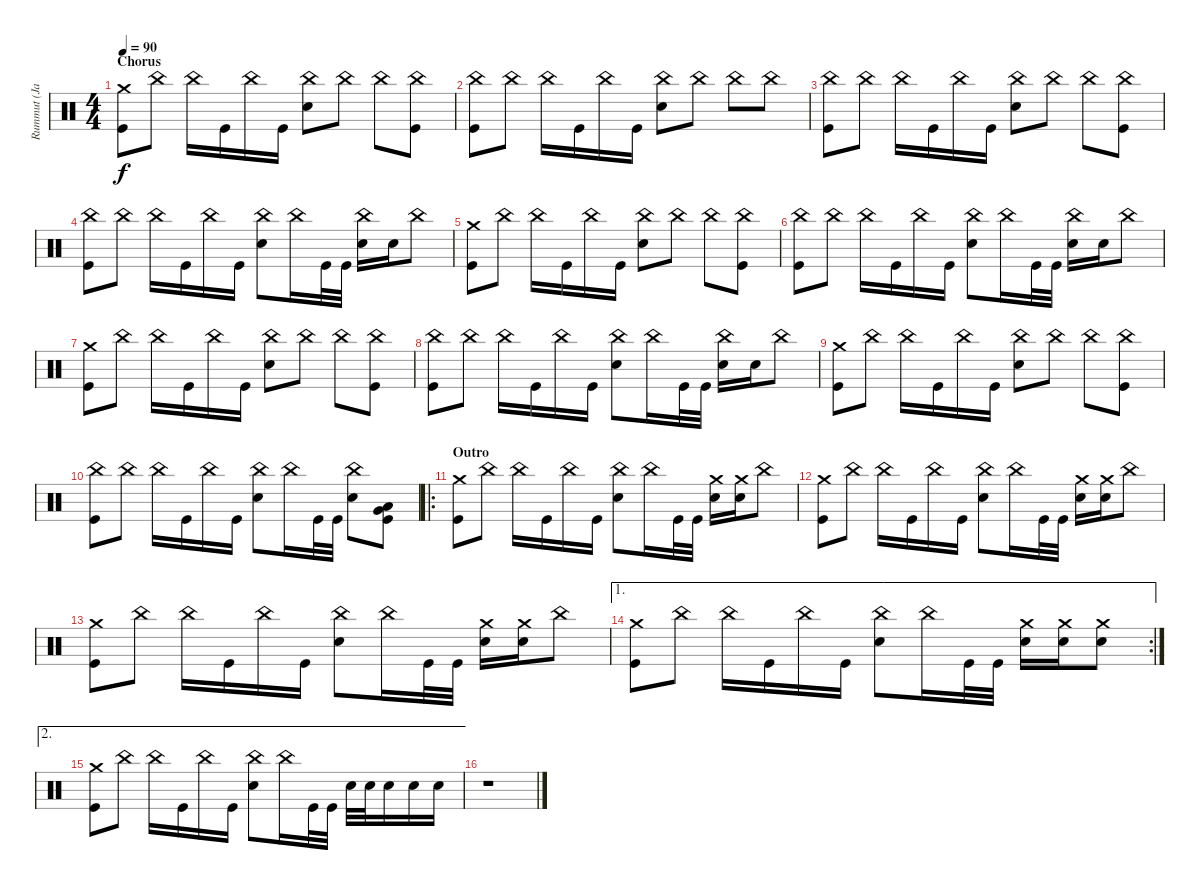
\track ("Rummut (Janne)" "Rummut (Ja") {instrument percussion}
\staff {score}
\articulation defaults
\ts (4 4)
\section ("" "Chorus")
\tempo 90
\clef neutral
\ks c
("Crash medium (hit)" "Kick (hit)").8{dy f} "China (hit)".8 "China (hit)".16 "Kick (hit)".16 "China (hit)".16 "Kick (hit)".16 ("China (hit)" "Snare (hit) 2").8 "China (hit)".8 "China (hit)".8 ("China (hit)" "Kick (hit)").8 |
("China (hit)" "Kick (hit)").8 "China (hit)".8 "China (hit)".16 "Kick (hit)".16 "China (hit)".16 "Kick (hit)".16 ("China (hit)" "Snare (hit) 2").8 "China (hit)".8 "China (hit)".8 "China (hit)".8 |
("China (hit)" "Kick (hit)").8 "China (hit)".8 "China (hit)".16 "Kick (hit)".16 "China (hit)".16 "Kick (hit)".16 ("China (hit)" "Snare (hit) 2").8 "China (hit)".8 "China (hit)".8 ("China (hit)" "Kick (hit)").8 |
("China (hit)" "Kick (hit)").8 "China (hit)".8 "China (hit)".16 "Kick (hit)".16 "China (hit)".16 "Kick (hit)".16 ("China (hit)" "Snare (hit) 2").8 "China (hit)".16 "Kick (hit)".32 "Kick (hit)".32 ("China (hit)" "Snare (hit) 2").16 "Snare (hit) 2".16 "China (hit)".8 |
("Crash medium (hit)" "Kick (hit)").8 "China (hit)".8 "China (hit)".16 "Kick (hit)".16 "China (hit)".16 "Kick (hit)".16 ("China (hit)" "Snare (hit) 2").8 "China (hit)".8 "China (hit)".8 ("China (hit)" "Kick (hit)").8 |
("China (hit)" "Kick (hit)").8 "China (hit)".8 "China (hit)".16 "Kick (hit)".16 "China (hit)".16 "Kick (hit)".16 ("China (hit)" "Snare (hit) 2").8 "China (hit)".16 "Kick (hit)".32 "Kick (hit)".32 ("China (hit)" "Snare (hit) 2").16 "Snare (hit) 2".16 "China (hit)".8 |
("Crash medium (hit)" "Kick (hit)").8 "China (hit)".8 "China (hit)".16 "Kick (hit)".16 "China (hit)".16 "Kick (hit)".16 ("China (hit)" "Snare (hit) 2").8 "China (hit)".8 "China (hit)".8 ("China (hit)" "Kick (hit)").8 |
("China (hit)" "Kick (hit)").8 "China (hit)".8 "China (hit)".16 "Kick (hit)".16 "China (hit)".16 "Kick (hit)".16 ("China (hit)" "Snare (hit) 2").8 "China (hit)".16 "Kick (hit)".32 "Kick (hit)".32 ("China (hit)" "Snare (hit) 2").16 "Snare (hit) 2".16 "China (hit)".8 |
("Crash medium (hit)" "Kick (hit)").8 "China (hit)".8 "China (hit)".16 "Kick (hit)".16 "China (hit)".16 "Kick (hit)".16 ("China (hit)" "Snare (hit) 2").8 "China (hit)".8 "China (hit)".8 ("China (hit)" "Kick (hit)").8 |
("China (hit)" "Kick (hit)").8 "China (hit)".8 "China (hit)".16 "Kick (hit)".16 "China (hit)".16 "Kick (hit)".16 ("China (hit)" "Snare (hit) 2").8 "China (hit)".16 "Kick (hit)".32 "Kick (hit)".32 ("China (hit)" "Snare (hit) 2").8 ("Low Tom (hit)" "Very Low Tom (hit)" "Kick (hit)").8 |
\ro
\section ("" "Outro")
("Crash medium (hit)" "Kick (hit)").8 "China (hit)".8 "China (hit)".16 "Kick (hit)".16 "China (hit)".16 "Kick (hit)".16 ("China (hit)" "Snare (hit) 2").8 "China (hit)".16 "Kick (hit)".32 "Kick (hit)".32 ("Crash medium (hit)" "Snare (hit) 2").16 ("Crash medium (hit)" "Snare (hit) 2").16 "China (hit)".8 |
("Crash medium (hit)" "Kick (hit)").8 "China (hit)".8 "China (hit)".16 "Kick (hit)".16 "China (hit)".16 "Kick (hit)".16 ("China (hit)" "Snare (hit) 2").8 "China (hit)".16 "Kick (hit)".32 "Kick (hit)".32 ("Crash medium (hit)" "Snare (hit) 2").16 ("Crash medium (hit)" "Snare (hit) 2").16 "China (hit)".8 |
("Crash medium (hit)" "Kick (hit)").8 "China (hit)".8 "China (hit)".16 "Kick (hit)".16 "China (hit)".16 "Kick (hit)".16 ("China (hit)" "Snare (hit) 2").8 "China (hit)".16 "Kick (hit)".32 "Kick (hit)".32 ("Crash medium (hit)" "Snare (hit) 2").16 ("Crash medium (hit)" "Snare (hit) 2").16 "China (hit)".8 |
\ae 1
\rc 2
("Crash medium (hit)" "Kick (hit)").8 "China (hit)".8 "China (hit)".16 "Kick (hit)".16 "China (hit)".16 "Kick (hit)".16 ("China (hit)" "Snare (hit) 2").8 "China (hit)".16 "Kick (hit)".32 "Kick (hit)".32 ("Crash medium (hit)" "Snare (hit) 2").16 ("Crash medium (hit)" "Snare (hit) 2").16 ("Crash medium (hit)" "Snare (hit) 2").8 |
\ae 2
("Crash medium (hit)" "Kick (hit)").8 "China (hit)".8 "China (hit)".16 "Kick (hit)".16 "China (hit)".16 "Kick (hit)".16 ("China (hit)" "Snare (hit) 2").8 "China (hit)".16 "Kick (hit)".32 "Kick (hit)".32 "Snare (hit) 2".32 "Snare (hit) 2".32 "Snare (hit) 2".16 "Snare (hit) 2".16 "Snare (hit) 2".16 |
r.1
